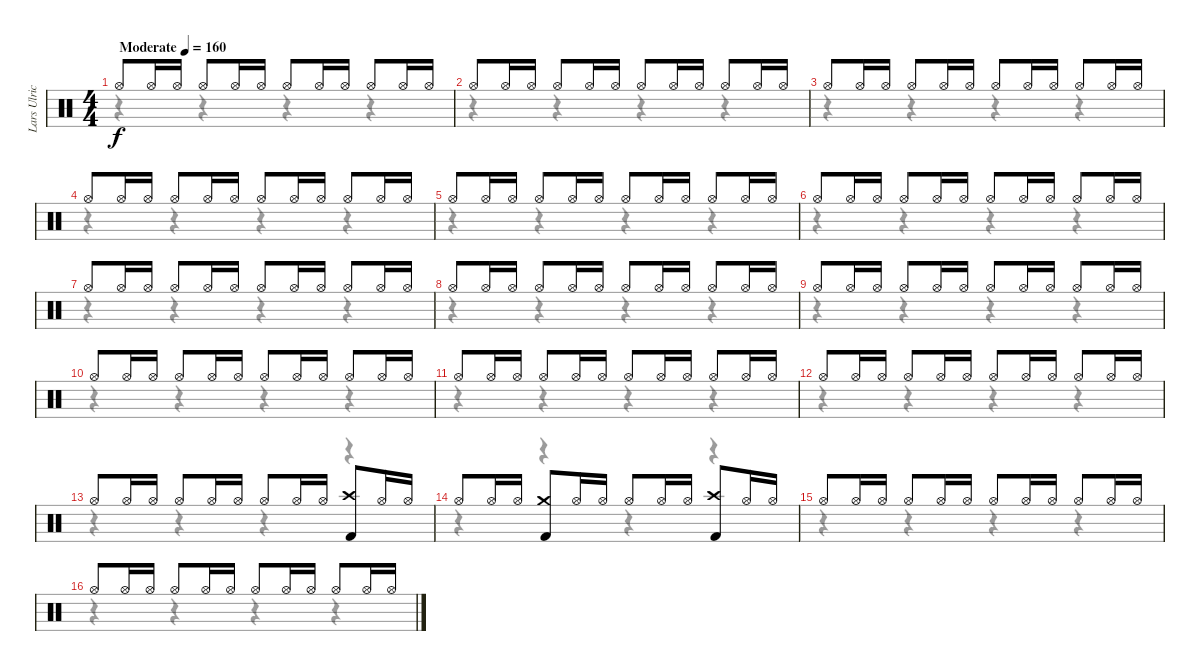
\track ("Lars Ulrich" "Lars Ulric") {instrument percussion}
\staff {score}
\articulation defaults
\voice
\ts (4 4)
\tempo (160 "Moderate")
\clef neutral
\ks c "Hi-Hat (open)".8{dy f} "Hi-Hat (open)".16 "Hi-Hat (open)".16 "Hi-Hat (open)".8 "Hi-Hat (open)".16 "Hi-Hat (open)".16 "Hi-Hat (open)".8 "Hi-Hat (open)".16 "Hi-Hat (open)".16 "Hi-Hat (open)".8 "Hi-Hat (open)".16 "Hi-Hat (open)".16
|
"Hi-Hat (open)".8 "Hi-Hat (open)".16 "Hi-Hat (open)".16 "Hi-Hat (open)".8 "Hi-Hat (open)".16 "Hi-Hat (open)".16 "Hi-Hat (open)".8 "Hi-Hat (open)".16 "Hi-Hat (open)".16 "Hi-Hat (open)".8 "Hi-Hat (open)".16 "Hi-Hat (open)".16 |
"Hi-Hat (open)".8 "Hi-Hat (open)".16 "Hi-Hat (open)".16 "Hi-Hat (open)".8 "Hi-Hat (open)".16 "Hi-Hat (open)".16 "Hi-Hat (open)".8 "Hi-Hat (open)".16 "Hi-Hat (open)".16 "Hi-Hat (open)".8 "Hi-Hat (open)".16 "Hi-Hat (open)".16 |
"Hi-Hat (open)".8 "Hi-Hat (open)".16 "Hi-Hat (open)".16 "Hi-Hat (open)".8 "Hi-Hat (open)".16 "Hi-Hat (open)".16 "Hi-Hat (open)".8 "Hi-Hat (open)".16 "Hi-Hat (open)".16 "Hi-Hat (open)".8 "Hi-Hat (open)".16 "Hi-Hat (open)".16 |
"Hi-Hat (open)".8 "Hi-Hat (open)".16 "Hi-Hat (open)".16 "Hi-Hat (open)".8 "Hi-Hat (open)".16 "Hi-Hat (open)".16 "Hi-Hat (open)".8 "Hi-Hat (open)".16 "Hi-Hat (open)".16 "Hi-Hat (open)".8 "Hi-Hat (open)".16 "Hi-Hat (open)".16 |
"Hi-Hat (open)".8 "Hi-Hat (open)".16 "Hi-Hat (open)".16 "Hi-Hat (open)".8 "Hi-Hat (open)".16 "Hi-Hat (open)".16 "Hi-Hat (open)".8 "Hi-Hat (open)".16 "Hi-Hat (open)".16 "Hi-Hat (open)".8 "Hi-Hat (open)".16 "Hi-Hat (open)".16 |
"Hi-Hat (open)".8 "Hi-Hat (open)".16 "Hi-Hat (open)".16 "Hi-Hat (open)".8 "Hi-Hat (open)".16 "Hi-Hat (open)".16 "Hi-Hat (open)".8 "Hi-Hat (open)".16 "Hi-Hat (open)".16 "Hi-Hat (open)".8 "Hi-Hat (open)".16 "Hi-Hat (open)".16 |
"Hi-Hat (open)".8 "Hi-Hat (open)".16 "Hi-Hat (open)".16 "Hi-Hat (open)".8 "Hi-Hat (open)".16 "Hi-Hat (open)".16 "Hi-Hat (open)".8 "Hi-Hat (open)".16 "Hi-Hat (open)".16 "Hi-Hat (open)".8 "Hi-Hat (open)".16 "Hi-Hat (open)".16 |
"Hi-Hat (open)".8 "Hi-Hat (open)".16 "Hi-Hat (open)".16 "Hi-Hat (open)".8 "Hi-Hat (open)".16 "Hi-Hat (open)".16 "Hi-Hat (open)".8 "Hi-Hat (open)".16 "Hi-Hat (open)".16 "Hi-Hat (open)".8 "Hi-Hat (open)".16 "Hi-Hat (open)".16 |
"Hi-Hat (open)".8 "Hi-Hat (open)".16 "Hi-Hat (open)".16 "Hi-Hat (open)".8 "Hi-Hat (open)".16 "Hi-Hat (open)".16 "Hi-Hat (open)".8 "Hi-Hat (open)".16 "Hi-Hat (open)".16 "Hi-Hat (open)".8 "Hi-Hat (open)".16 "Hi-Hat (open)".16 |
"Hi-Hat (open)".8 "Hi-Hat (open)".16 "Hi-Hat (open)".16 "Hi-Hat (open)".8 "Hi-Hat (open)".16 "Hi-Hat (open)".16 "Hi-Hat (open)".8 "Hi-Hat (open)".16 "Hi-Hat (open)".16 "Hi-Hat (open)".8 "Hi-Hat (open)".16 "Hi-Hat (open)".16 |
"Hi-Hat (open)".8 "Hi-Hat (open)".16 "Hi-Hat (open)".16 "Hi-Hat (open)".8 "Hi-Hat (open)".16 "Hi-Hat (open)".16 "Hi-Hat (open)".8 "Hi-Hat (open)".16 "Hi-Hat (open)".16 "Hi-Hat (open)".8 "Hi-Hat (open)".16 "Hi-Hat (open)".16 |
"Hi-Hat (open)".8 "Hi-Hat (open)".16 "Hi-Hat (open)".16 "Hi-Hat (open)".8 "Hi-Hat (open)".16 "Hi-Hat (open)".16 "Hi-Hat (open)".8 "Hi-Hat (open)".16 "Hi-Hat (open)".16 ("Crash high (hit)" "Kick (hit) 2").8 "Hi-Hat (open)".16 "Hi-Hat (open)".16 |
"Hi-Hat (open)".8 "Hi-Hat (open)".16 "Hi-Hat (open)".16 ("Crash medium (hit)" "Kick (hit) 2").8 "Hi-Hat (open)".16 "Hi-Hat (open)".16 "Hi-Hat (open)".8 "Hi-Hat (open)".16 "Hi-Hat (open)".16 ("Crash high (hit)" "Kick (hit) 2").8 "Hi-Hat (open)".16 "Hi-Hat (open)".16 |
"Hi-Hat (open)".8 "Hi-Hat (open)".16 "Hi-Hat (open)".16 "Hi-Hat (open)".8 "Hi-Hat (open)".16 "Hi-Hat (open)".16 "Hi-Hat (open)".8 "Hi-Hat (open)".16 "Hi-Hat (open)".16 "Hi-Hat (open)".8 "Hi-Hat (open)".16 "Hi-Hat (open)".16 |
"Hi-Hat (open)".8 "Hi-Hat (open)".16 "Hi-Hat (open)".16 "Hi-Hat (open)".8 "Hi-Hat (open)".16 "Hi-Hat (open)".16 "Hi-Hat (open)".8 "Hi-Hat (open)".16 "Hi-Hat (open)".16 "Hi-Hat (open)".8 "Hi-Hat (open)".16 "Hi-Hat (open)".16
\voice
\clef neutral
\ottava regular
\simile none
\ks c
r.4{dy f} r.4 r.4 r.4 |
r.4 r.4 r.4 r.4 |
r.4 r.4 r.4 r.4 |
r.4 r.4 r.4 r.4 |
r.4 r.4 r.4 r.4 |
r.4 r.4 r.4 r.4 |
r.4 r.4 r.4 r.4 |
r.4 r.4 r.4 r.4 |
r.4 r.4 r.4 r.4 |
r.4 r.4 r.4 r.4 |
r.4 r.4 r.4 r.4 |
r.4 r.4 r.4 r.4 |
r.4 r.4 r.4 r.4 |
r.4 r.4 r.4 r.4 |
r.4 r.4 r.4 r.4 |
r.4 r.4 r.4 r.4
